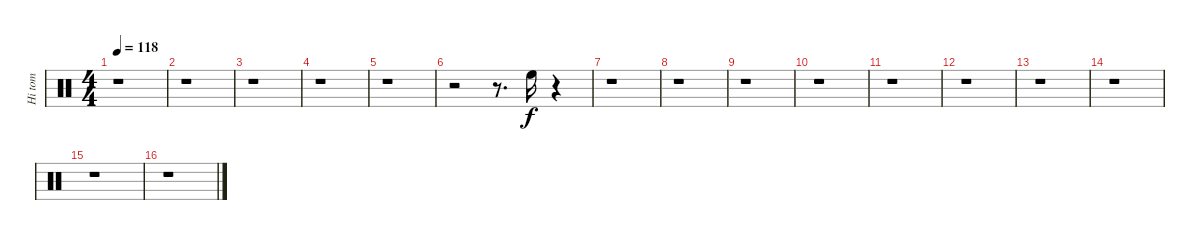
\track ("Hi tom              " "Hi tom    ") {instrument percussion}
\staff {score}
\articulation defaults
\ts (4 4)
\tempo 118
\clef neutral
\ks c
r.1{dy f} |
r.1 |
r.1 |
r.1 |
r.1 |
r.2 r.8{d} "High Floor Tom (hit)".16 r.4 |
r.1 |
r.1 |
r.1 |
r.1 |
r.1 |
r.1 |
r.1 |
r.1 |
r.1 |
r.1
